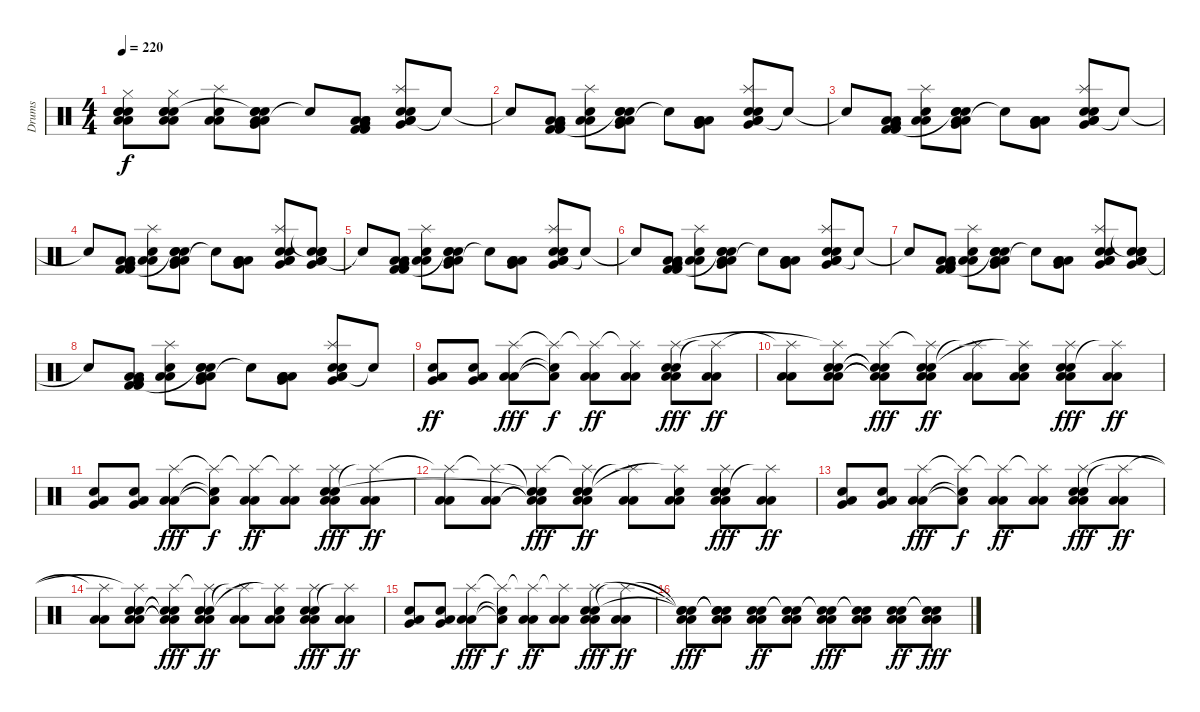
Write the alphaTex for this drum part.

\track ("Drums" "Drums") {instrument percussion}
\staff {score}
\articulation defaults
\ts (4 4)
\tempo 220
\clef neutral
\ks c
("Low Floor Tom (hit)" "Low Floor Tom (hit)" "Electric Snare (hit)" "Snare (hit) 2" "Electric Snare (hit)" "Hi-Hat (closed)").8{dy f} ("Low Floor Tom (hit)" "Low Floor Tom (hit)" "Electric Snare (hit)" "Snare (hit) 2" "Electric Snare (hit)" "Hi-Hat (closed)").8 ("Low Floor Tom (hit)" "Low Floor Tom (hit)" "Electric Snare (hit)" "Splash (hit)").8 ("Low Floor Tom (hit)" "Low Floor Tom (hit)" "Electric Snare (hit)" "Snare (hit) 2" "Snare (hit)"{t} "Very Low Tom (hit)").8 "Snare (hit)"{t}.8 ("Low Floor Tom (hit)" "Low Floor Tom (hit)" "Low Tom (hit)" "Kick (hit) 2" "Kick (hit) 2" "Very Low Tom (hit)").8 ("Low Floor Tom (hit)" "Low Floor Tom (hit)" "Electric Snare (hit)" "Snare (hit) 2" "Splash (hit)" "Very Low Tom (hit)").8 "Snare (hit)"{t}.8 |
"Snare (hit)"{t}.8 ("Low Floor Tom (hit)" "Very Low Tom (hit)" "Low Tom (hit)" "Kick (hit) 2" "Kick (hit) 2" "Very Low Tom (hit)").8 ("Low Floor Tom (hit)" "Low Floor Tom (hit)" "Electric Snare (hit)" "Splash (hit)").8 ("Low Floor Tom (hit)" "Low Floor Tom (hit)" "Electric Snare (hit)" "Snare (hit) 2" "Snare (hit)"{t} "Very Low Tom (hit)").8 "Snare (hit)"{t}.8 ("Low Floor Tom (hit)" "Low Floor Tom (hit)" "Low Tom (hit)" "Very Low Tom (hit)").8 ("Low Floor Tom (hit)" "Low Floor Tom (hit)" "Electric Snare (hit)" "Snare (hit) 2" "Splash (hit)" "Very Low Tom (hit)").8 "Snare (hit)"{t}.8 |
"Snare (hit)"{t}.8 ("Low Floor Tom (hit)" "Very Low Tom (hit)" "Low Tom (hit)" "Kick (hit) 2" "Kick (hit) 2" "Very Low Tom (hit)").8 ("Low Floor Tom (hit)" "Low Floor Tom (hit)" "Electric Snare (hit)" "Splash (hit)").8 ("Low Floor Tom (hit)" "Low Floor Tom (hit)" "Electric Snare (hit)" "Snare (hit) 2" "Snare (hit)"{t} "Very Low Tom (hit)").8 "Snare (hit)"{t}.8 ("Low Floor Tom (hit)" "Low Floor Tom (hit)" "Low Tom (hit)" "Very Low Tom (hit)").8 ("Low Floor Tom (hit)" "Low Floor Tom (hit)" "Electric Snare (hit)" "Snare (hit) 2" "Splash (hit)" "Very Low Tom (hit)").8 "Snare (hit)"{t}.8 |
"Snare (hit)"{t}.8 ("Low Floor Tom (hit)" "Very Low Tom (hit)" "Low Tom (hit)" "Kick (hit) 2" "Kick (hit) 2" "Very Low Tom (hit)").8 ("Low Floor Tom (hit)" "Low Floor Tom (hit)" "Electric Snare (hit)" "Splash (hit)").8 ("Low Floor Tom (hit)" "Low Floor Tom (hit)" "Electric Snare (hit)" "Snare (hit) 2" "Snare (hit)"{t} "Very Low Tom (hit)").8 "Snare (hit)"{t}.8 ("Low Floor Tom (hit)" "Low Floor Tom (hit)" "Low Tom (hit)" "Very Low Tom (hit)").8 ("Low Floor Tom (hit)" "Low Floor Tom (hit)" "Electric Snare (hit)" "Snare (hit) 2" "Splash (hit)" "Very Low Tom (hit)").8 ("Low Floor Tom (hit)" "Low Floor Tom (hit)" "Electric Snare (hit)" "Snare (hit) 2" "Snare (hit)"{t} "Very Low Tom (hit)").8 |
"Snare (hit)"{t}.8 ("Low Floor Tom (hit)" "Very Low Tom (hit)" "Low Tom (hit)" "Kick (hit) 2" "Kick (hit) 2" "Very Low Tom (hit)").8 ("Low Floor Tom (hit)" "Low Floor Tom (hit)" "Electric Snare (hit)" "Splash (hit)").8 ("Low Floor Tom (hit)" "Low Floor Tom (hit)" "Electric Snare (hit)" "Snare (hit) 2" "Snare (hit)"{t} "Very Low Tom (hit)").8 "Snare (hit)"{t}.8 ("Low Floor Tom (hit)" "Low Floor Tom (hit)" "Low Tom (hit)" "Very Low Tom (hit)").8 ("Low Floor Tom (hit)" "Low Floor Tom (hit)" "Electric Snare (hit)" "Snare (hit) 2" "Splash (hit)" "Very Low Tom (hit)").8 "Snare (hit)"{t}.8 |
"Snare (hit)"{t}.8 ("Low Floor Tom (hit)" "Very Low Tom (hit)" "Low Tom (hit)" "Kick (hit) 2" "Kick (hit) 2" "Very Low Tom (hit)").8 ("Low Floor Tom (hit)" "Low Floor Tom (hit)" "Electric Snare (hit)" "Splash (hit)").8 ("Low Floor Tom (hit)" "Low Floor Tom (hit)" "Electric Snare (hit)" "Snare (hit) 2" "Snare (hit)"{t} "Very Low Tom (hit)").8 "Snare (hit)"{t}.8 ("Low Floor Tom (hit)" "Low Floor Tom (hit)" "Low Tom (hit)" "Very Low Tom (hit)").8 ("Low Floor Tom (hit)" "Low Floor Tom (hit)" "Electric Snare (hit)" "Snare (hit) 2" "Splash (hit)" "Very Low Tom (hit)").8 "Snare (hit)"{t}.8 |
"Snare (hit)"{t}.8 ("Low Floor Tom (hit)" "Very Low Tom (hit)" "Low Tom (hit)" "Kick (hit) 2" "Kick (hit) 2" "Very Low Tom (hit)").8 ("Low Floor Tom (hit)" "Low Floor Tom (hit)" "Electric Snare (hit)" "Splash (hit)").8 ("Low Floor Tom (hit)" "Low Floor Tom (hit)" "Electric Snare (hit)" "Snare (hit) 2" "Snare (hit)"{t} "Very Low Tom (hit)").8 "Snare (hit)"{t}.8 ("Low Floor Tom (hit)" "Low Floor Tom (hit)" "Low Tom (hit)" "Very Low Tom (hit)").8 ("Low Floor Tom (hit)" "Low Floor Tom (hit)" "Electric Snare (hit)" "Snare (hit) 2" "Splash (hit)" "Very Low Tom (hit)").8 ("Low Floor Tom (hit)" "Low Floor Tom (hit)" "Electric Snare (hit)" "Snare (hit) 2" "Snare (hit)"{t} "Very Low Tom (hit)").8 |
"Snare (hit)"{t}.8 ("Low Floor Tom (hit)" "Very Low Tom (hit)" "Low Tom (hit)" "Kick (hit) 2" "Kick (hit) 2" "Very Low Tom (hit)").8 ("Low Floor Tom (hit)" "Low Floor Tom (hit)" "Electric Snare (hit)" "Splash (hit)").8 ("Low Floor Tom (hit)" "Low Floor Tom (hit)" "Electric Snare (hit)" "Snare (hit) 2" "Snare (hit)"{t} "Very Low Tom (hit)").8 "Snare (hit)"{t}.8 ("Low Floor Tom (hit)" "Low Floor Tom (hit)" "Low Tom (hit)" "Very Low Tom (hit)").8 ("Low Floor Tom (hit)" "Low Floor Tom (hit)" "Electric Snare (hit)" "Snare (hit) 2" "Splash (hit)" "Very Low Tom (hit)").8 "Snare (hit)"{t}.8 |
("Very Low Tom (hit)" "Electric Snare (hit)" "Low Floor Tom (hit)").8{dy ff} ("Very Low Tom (hit)" "Electric Snare (hit)" "Low Floor Tom (hit)").8 ("Low Floor Tom (hit)" "Low Floor Tom (hit)" "Splash (hit)").8{dy fff} ("Low Floor Tom (hit)"{t} "Snare (hit)"{t} "Splash (hit)"{t}).8{dy f} ("Low Floor Tom (hit)" "Low Floor Tom (hit)" "Splash (hit)"{t}).8{dy ff} ("Low Floor Tom (hit)" "Low Floor Tom (hit)" "Splash (hit)"{t}).8 ("Low Floor Tom (hit)" "Low Floor Tom (hit)" "Electric Snare (hit)" "Snare (hit) 2" "Splash (hit)").8{dy fff} ("Low Floor Tom (hit)" "Low Floor Tom (hit)" "Splash (hit)"{t}).8{dy ff} |
("Low Floor Tom (hit)" "Low Floor Tom (hit)" "Splash (hit)"{t}).8 ("Low Floor Tom (hit)" "Low Floor Tom (hit)" "Electric Snare (hit)" "Snare (hit) 2" "Splash (hit)"{t}).8 ("Low Floor Tom (hit)"{t} "Low Floor Tom (hit)"{t} "Electric Snare (hit)"{t} "Snare (hit) 2"{t} "Splash (hit)").8{dy fff} ("Low Floor Tom (hit)" "Low Floor Tom (hit)" "Electric Snare (hit)" "Snare (hit) 2" "Splash (hit)"{t}).8{dy ff} ("Low Floor Tom (hit)" "Low Floor Tom (hit)" "Splash (hit)"{t}).8 ("Low Floor Tom (hit)" "Low Floor Tom (hit)" "Electric Snare (hit)" "Splash (hit)"{t}).8 ("Low Floor Tom (hit)" "Low Floor Tom (hit)" "Electric Snare (hit)" "Snare (hit) 2" "Splash (hit)").8{dy fff} ("Low Floor Tom (hit)" "Low Floor Tom (hit)" "Splash (hit)"{t}).8{dy ff} |
("Very Low Tom (hit)" "Electric Snare (hit)" "Low Floor Tom (hit)").8 ("Very Low Tom (hit)" "Electric Snare (hit)" "Low Floor Tom (hit)").8 ("Low Floor Tom (hit)" "Low Floor Tom (hit)" "Splash (hit)").8{dy fff} ("Low Floor Tom (hit)"{t} "Snare (hit)"{t} "Splash (hit)"{t}).8{dy f} ("Low Floor Tom (hit)" "Low Floor Tom (hit)" "Splash (hit)"{t}).8{dy ff} ("Low Floor Tom (hit)" "Low Floor Tom (hit)" "Splash (hit)"{t}).8 ("Low Floor Tom (hit)" "Low Floor Tom (hit)" "Electric Snare (hit)" "Snare (hit) 2" "Splash (hit)").8{dy fff} ("Low Floor Tom (hit)" "Low Floor Tom (hit)" "Splash (hit)"{t}).8{dy ff} |
("Low Floor Tom (hit)" "Low Floor Tom (hit)" "Splash (hit)"{t}).8 ("Low Floor Tom (hit)" "Low Floor Tom (hit)" "Splash (hit)"{t}).8 ("Low Floor Tom (hit)"{t} "Low Floor Tom (hit)"{t} "Electric Snare (hit)"{t} "Snare (hit) 2"{t} "Splash (hit)").8{dy fff} ("Low Floor Tom (hit)" "Low Floor Tom (hit)" "Electric Snare (hit)" "Snare (hit) 2" "Splash (hit)"{t}).8{dy ff} ("Low Floor Tom (hit)" "Low Floor Tom (hit)" "Splash (hit)"{t}).8 ("Low Floor Tom (hit)" "Low Floor Tom (hit)" "Electric Snare (hit)" "Splash (hit)"{t}).8 ("Low Floor Tom (hit)" "Low Floor Tom (hit)" "Electric Snare (hit)" "Snare (hit) 2" "Splash (hit)").8{dy fff} ("Low Floor Tom (hit)" "Low Floor Tom (hit)" "Splash (hit)"{t}).8{dy ff} |
("Very Low Tom (hit)" "Electric Snare (hit)" "Low Floor Tom (hit)").8 ("Very Low Tom (hit)" "Electric Snare (hit)" "Low Floor Tom (hit)").8 ("Low Floor Tom (hit)" "Low Floor Tom (hit)" "Splash (hit)").8{dy fff} ("Low Floor Tom (hit)"{t} "Snare (hit)"{t} "Splash (hit)"{t}).8{dy f} ("Low Floor Tom (hit)" "Low Floor Tom (hit)" "Splash (hit)"{t}).8{dy ff} ("Low Floor Tom (hit)" "Low Floor Tom (hit)" "Splash (hit)"{t}).8 ("Low Floor Tom (hit)" "Low Floor Tom (hit)" "Electric Snare (hit)" "Snare (hit) 2" "Splash (hit)").8{dy fff} ("Low Floor Tom (hit)" "Low Floor Tom (hit)" "Splash (hit)"{t}).8{dy ff} |
("Low Floor Tom (hit)" "Low Floor Tom (hit)" "Splash (hit)"{t}).8 ("Low Floor Tom (hit)" "Low Floor Tom (hit)" "Electric Snare (hit)" "Snare (hit) 2" "Splash (hit)"{t}).8 ("Low Floor Tom (hit)"{t} "Low Floor Tom (hit)"{t} "Electric Snare (hit)"{t} "Snare (hit) 2"{t} "Splash (hit)").8{dy fff} ("Low Floor Tom (hit)" "Low Floor Tom (hit)" "Electric Snare (hit)" "Snare (hit) 2" "Splash (hit)"{t}).8{dy ff} ("Low Floor Tom (hit)" "Low Floor Tom (hit)" "Splash (hit)"{t}).8 ("Low Floor Tom (hit)" "Low Floor Tom (hit)" "Electric Snare (hit)" "Splash (hit)"{t}).8 ("Low Floor Tom (hit)" "Low Floor Tom (hit)" "Electric Snare (hit)" "Snare (hit) 2" "Splash (hit)").8{dy fff} ("Low Floor Tom (hit)" "Low Floor Tom (hit)" "Splash (hit)"{t}).8{dy ff} |
("Very Low Tom (hit)" "Electric Snare (hit)" "Low Floor Tom (hit)").8 ("Very Low Tom (hit)" "Electric Snare (hit)" "Low Floor Tom (hit)").8 ("Low Floor Tom (hit)" "Low Floor Tom (hit)" "Splash (hit)").8{dy fff} ("Low Floor Tom (hit)"{t} "Snare (hit)"{t} "Splash (hit)"{t}).8{dy f} ("Low Floor Tom (hit)" "Low Floor Tom (hit)" "Splash (hit)"{t}).8{dy ff} ("Low Floor Tom (hit)" "Low Floor Tom (hit)" "Splash (hit)"{t}).8 ("Low Floor Tom (hit)" "Low Floor Tom (hit)" "Electric Snare (hit)" "Snare (hit) 2" "Splash (hit)").8{dy fff} ("Low Floor Tom (hit)" "Low Floor Tom (hit)" "Splash (hit)"{t}).8{dy ff} |
("Low Floor Tom (hit)" "Low Floor Tom (hit)" "Electric Snare (hit)"{t} "Snare (hit)"{t} "Snare (hit)"{t}).8{dy fff} ("Low Floor Tom (hit)" "Low Floor Tom (hit)" "Electric Snare (hit)"{t} "Snare (hit)"{t} "Snare (hit)"{t}).8 ("Low Floor Tom (hit)" "Low Floor Tom (hit)" "Electric Snare (hit)" "Snare (hit) 2").8{dy ff} ("Low Floor Tom (hit)" "Low Floor Tom (hit)" "Electric Snare (hit)"{t} "Snare (hit)"{t}).8 ("Low Floor Tom (hit)" "Low Floor Tom (hit)" "Electric Snare (hit)"{t} "Snare (hit)"{t}).8{dy fff} ("Low Floor Tom (hit)" "Low Floor Tom (hit)" "Electric Snare (hit)"{t} "Snare (hit)"{t}).8 ("Low Floor Tom (hit)" "Low Floor Tom (hit)" "Electric Snare (hit)" "Snare (hit) 2").8{dy ff} ("Low Floor Tom (hit)" "Low Floor Tom (hit)" "Electric Snare (hit)"{t} "Snare (hit)"{t}).8{dy fff}
